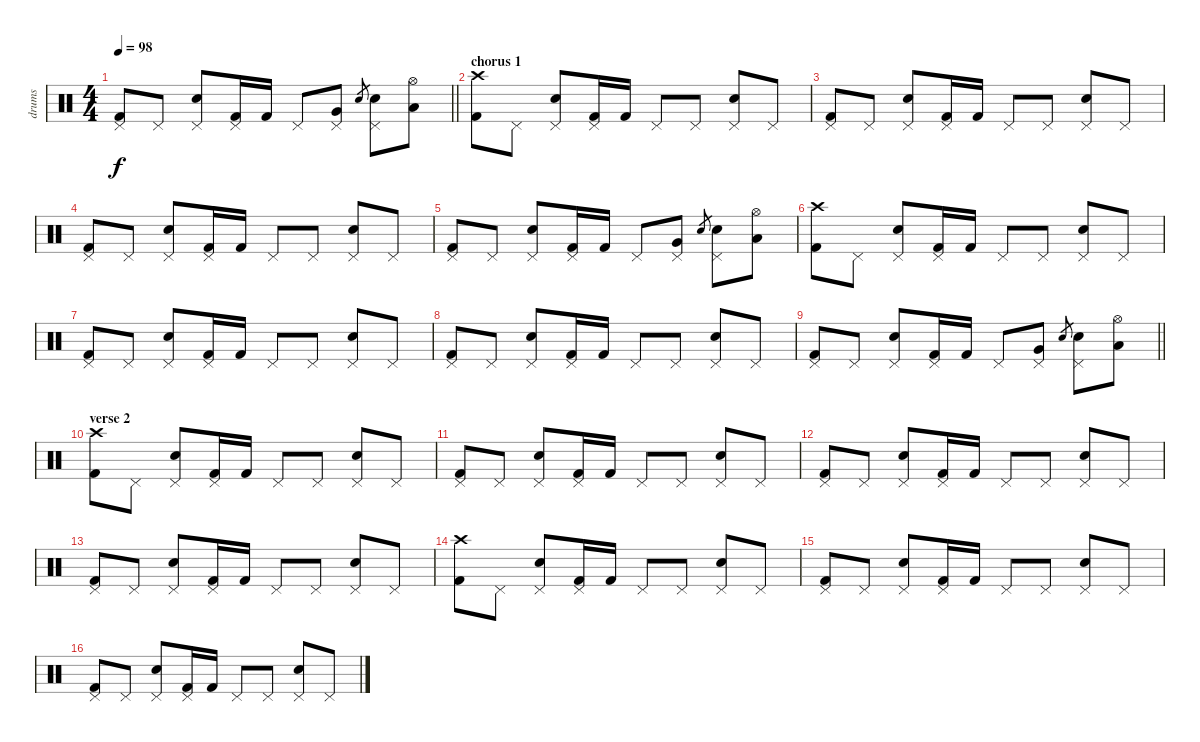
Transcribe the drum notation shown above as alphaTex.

\track ("drums" "drums") {instrument percussion}
\staff {score}
\articulation defaults
\ts (4 4)
\tempo 98
\clef neutral
\barLineRight lightlight
\ks c
("Kick (hit) 2" "Pedal Hi-Hat (hit)").8{dy f} "Pedal Hi-Hat (hit)".8 ("Electric Snare (hit)" "Pedal Hi-Hat (hit)").8 ("Kick (hit) 2" "Pedal Hi-Hat (hit)").16 "Kick (hit) 2".16 "Pedal Hi-Hat (hit)".8 ("Very Low Tom (hit)" "Pedal Hi-Hat (hit)").8 "Electric Snare (hit)".8{gr} ("Electric Snare (hit)" "Pedal Hi-Hat (hit)").8 ("Low Tom (hit)" "Hi-Hat (open)").8 |
\section ("" "chorus 1")
("Kick (hit) 2" "Crash high (hit)").8 "Pedal Hi-Hat (hit)".8 ("Electric Snare (hit)" "Pedal Hi-Hat (hit)").8 ("Kick (hit) 2" "Pedal Hi-Hat (hit)").16 "Kick (hit) 2".16 "Pedal Hi-Hat (hit)".8 "Pedal Hi-Hat (hit)".8 ("Electric Snare (hit)" "Pedal Hi-Hat (hit)").8 "Pedal Hi-Hat (hit)".8 |
("Kick (hit) 2" "Pedal Hi-Hat (hit)").8 "Pedal Hi-Hat (hit)".8 ("Electric Snare (hit)" "Pedal Hi-Hat (hit)").8 ("Kick (hit) 2" "Pedal Hi-Hat (hit)").16 "Kick (hit) 2".16 "Pedal Hi-Hat (hit)".8 "Pedal Hi-Hat (hit)".8 ("Electric Snare (hit)" "Pedal Hi-Hat (hit)").8 "Pedal Hi-Hat (hit)".8 |
("Kick (hit) 2" "Pedal Hi-Hat (hit)").8 "Pedal Hi-Hat (hit)".8 ("Electric Snare (hit)" "Pedal Hi-Hat (hit)").8 ("Kick (hit) 2" "Pedal Hi-Hat (hit)").16 "Kick (hit) 2".16 "Pedal Hi-Hat (hit)".8 "Pedal Hi-Hat (hit)".8 ("Electric Snare (hit)" "Pedal Hi-Hat (hit)").8 "Pedal Hi-Hat (hit)".8 |
("Kick (hit) 2" "Pedal Hi-Hat (hit)").8 "Pedal Hi-Hat (hit)".8 ("Electric Snare (hit)" "Pedal Hi-Hat (hit)").8 ("Kick (hit) 2" "Pedal Hi-Hat (hit)").16 "Kick (hit) 2".16 "Pedal Hi-Hat (hit)".8 ("Very Low Tom (hit)" "Pedal Hi-Hat (hit)").8 "Electric Snare (hit)".8{gr} ("Electric Snare (hit)" "Pedal Hi-Hat (hit)").8 ("Low Tom (hit)" "Hi-Hat (open)").8 |
("Kick (hit) 2" "Crash high (hit)").8 "Pedal Hi-Hat (hit)".8 ("Electric Snare (hit)" "Pedal Hi-Hat (hit)").8 ("Kick (hit) 2" "Pedal Hi-Hat (hit)").16 "Kick (hit) 2".16 "Pedal Hi-Hat (hit)".8 "Pedal Hi-Hat (hit)".8 ("Electric Snare (hit)" "Pedal Hi-Hat (hit)").8 "Pedal Hi-Hat (hit)".8 |
("Kick (hit) 2" "Pedal Hi-Hat (hit)").8 "Pedal Hi-Hat (hit)".8 ("Electric Snare (hit)" "Pedal Hi-Hat (hit)").8 ("Kick (hit) 2" "Pedal Hi-Hat (hit)").16 "Kick (hit) 2".16 "Pedal Hi-Hat (hit)".8 "Pedal Hi-Hat (hit)".8 ("Electric Snare (hit)" "Pedal Hi-Hat (hit)").8 "Pedal Hi-Hat (hit)".8 |
("Kick (hit) 2" "Pedal Hi-Hat (hit)").8 "Pedal Hi-Hat (hit)".8 ("Electric Snare (hit)" "Pedal Hi-Hat (hit)").8 ("Kick (hit) 2" "Pedal Hi-Hat (hit)").16 "Kick (hit) 2".16 "Pedal Hi-Hat (hit)".8 "Pedal Hi-Hat (hit)".8 ("Electric Snare (hit)" "Pedal Hi-Hat (hit)").8 "Pedal Hi-Hat (hit)".8 |
\barLineRight lightlight
("Kick (hit) 2" "Pedal Hi-Hat (hit)").8 "Pedal Hi-Hat (hit)".8 ("Electric Snare (hit)" "Pedal Hi-Hat (hit)").8 ("Kick (hit) 2" "Pedal Hi-Hat (hit)").16 "Kick (hit) 2".16 "Pedal Hi-Hat (hit)".8 ("Very Low Tom (hit)" "Pedal Hi-Hat (hit)").8 "Electric Snare (hit)".8{gr} ("Electric Snare (hit)" "Pedal Hi-Hat (hit)").8 ("Low Tom (hit)" "Hi-Hat (open)").8 |
\section ("" "verse 2")
("Kick (hit) 2" "Crash high (hit)").8 "Pedal Hi-Hat (hit)".8 ("Electric Snare (hit)" "Pedal Hi-Hat (hit)").8 ("Kick (hit) 2" "Pedal Hi-Hat (hit)").16 "Kick (hit) 2".16 "Pedal Hi-Hat (hit)".8 "Pedal Hi-Hat (hit)".8 ("Electric Snare (hit)" "Pedal Hi-Hat (hit)").8 "Pedal Hi-Hat (hit)".8 |
("Kick (hit) 2" "Pedal Hi-Hat (hit)").8 "Pedal Hi-Hat (hit)".8 ("Electric Snare (hit)" "Pedal Hi-Hat (hit)").8 ("Kick (hit) 2" "Pedal Hi-Hat (hit)").16 "Kick (hit) 2".16 "Pedal Hi-Hat (hit)".8 "Pedal Hi-Hat (hit)".8 ("Electric Snare (hit)" "Pedal Hi-Hat (hit)").8 "Pedal Hi-Hat (hit)".8 |
("Kick (hit) 2" "Pedal Hi-Hat (hit)").8 "Pedal Hi-Hat (hit)".8 ("Electric Snare (hit)" "Pedal Hi-Hat (hit)").8 ("Kick (hit) 2" "Pedal Hi-Hat (hit)").16 "Kick (hit) 2".16 "Pedal Hi-Hat (hit)".8 "Pedal Hi-Hat (hit)".8 ("Electric Snare (hit)" "Pedal Hi-Hat (hit)").8 "Pedal Hi-Hat (hit)".8 |
("Kick (hit) 2" "Pedal Hi-Hat (hit)").8 "Pedal Hi-Hat (hit)".8 ("Electric Snare (hit)" "Pedal Hi-Hat (hit)").8 ("Kick (hit) 2" "Pedal Hi-Hat (hit)").16 "Kick (hit) 2".16 "Pedal Hi-Hat (hit)".8 "Pedal Hi-Hat (hit)".8 ("Electric Snare (hit)" "Pedal Hi-Hat (hit)").8 "Pedal Hi-Hat (hit)".8 |
("Kick (hit) 2" "Crash high (hit)").8 "Pedal Hi-Hat (hit)".8 ("Electric Snare (hit)" "Pedal Hi-Hat (hit)").8 ("Kick (hit) 2" "Pedal Hi-Hat (hit)").16 "Kick (hit) 2".16 "Pedal Hi-Hat (hit)".8 "Pedal Hi-Hat (hit)".8 ("Electric Snare (hit)" "Pedal Hi-Hat (hit)").8 "Pedal Hi-Hat (hit)".8 |
("Kick (hit) 2" "Pedal Hi-Hat (hit)").8 "Pedal Hi-Hat (hit)".8 ("Electric Snare (hit)" "Pedal Hi-Hat (hit)").8 ("Kick (hit) 2" "Pedal Hi-Hat (hit)").16 "Kick (hit) 2".16 "Pedal Hi-Hat (hit)".8 "Pedal Hi-Hat (hit)".8 ("Electric Snare (hit)" "Pedal Hi-Hat (hit)").8 "Pedal Hi-Hat (hit)".8 |
("Kick (hit) 2" "Pedal Hi-Hat (hit)").8 "Pedal Hi-Hat (hit)".8 ("Electric Snare (hit)" "Pedal Hi-Hat (hit)").8 ("Kick (hit) 2" "Pedal Hi-Hat (hit)").16 "Kick (hit) 2".16 "Pedal Hi-Hat (hit)".8 "Pedal Hi-Hat (hit)".8 ("Electric Snare (hit)" "Pedal Hi-Hat (hit)").8 "Pedal Hi-Hat (hit)".8
